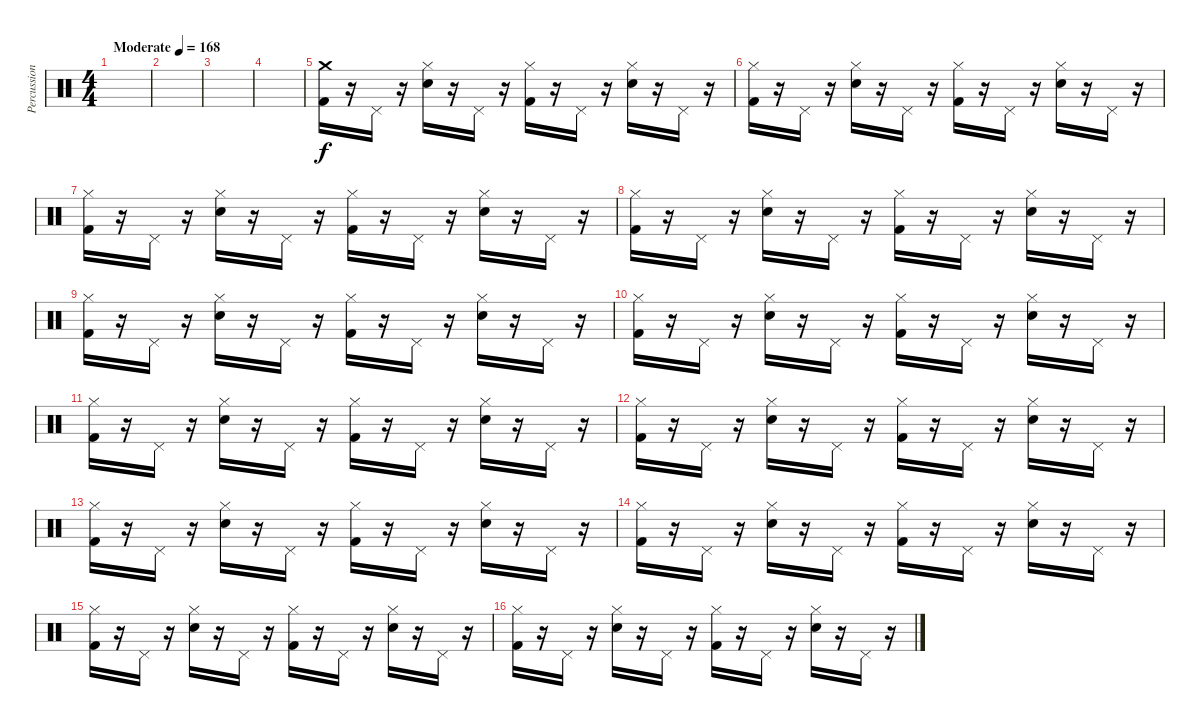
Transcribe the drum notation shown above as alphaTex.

\track ("Percussion" "Percussion") {instrument percussion}
\staff {score}
\articulation defaults
\ts (4 4)
\tempo (168 "Moderate")
\clef neutral
\ks c
|
|
|
|
("Crash medium (hit)" "Kick (hit) 2").16 r.16 "Pedal Hi-Hat (hit)".16 r.16 ("Hi-Hat (closed)" "Snare (hit) 2").16 r.16 "Pedal Hi-Hat (hit)".16 r.16 ("Hi-Hat (closed)" "Kick (hit) 2").16 r.16 "Pedal Hi-Hat (hit)".16 r.16 ("Hi-Hat (closed)" "Snare (hit) 2").16 r.16 "Pedal Hi-Hat (hit)".16 r.16 |
("Hi-Hat (closed)" "Kick (hit) 2").16 r.16 "Pedal Hi-Hat (hit)".16 r.16 ("Hi-Hat (closed)" "Snare (hit) 2").16 r.16 "Pedal Hi-Hat (hit)".16 r.16 ("Hi-Hat (closed)" "Kick (hit) 2").16 r.16 "Pedal Hi-Hat (hit)".16 r.16 ("Hi-Hat (closed)" "Snare (hit) 2").16 r.16 "Pedal Hi-Hat (hit)".16 r.16 |
("Hi-Hat (closed)" "Kick (hit) 2").16 r.16 "Pedal Hi-Hat (hit)".16 r.16 ("Hi-Hat (closed)" "Snare (hit) 2").16 r.16 "Pedal Hi-Hat (hit)".16 r.16 ("Hi-Hat (closed)" "Kick (hit) 2").16 r.16 "Pedal Hi-Hat (hit)".16 r.16 ("Hi-Hat (closed)" "Snare (hit) 2").16 r.16 "Pedal Hi-Hat (hit)".16 r.16 |
("Hi-Hat (closed)" "Kick (hit) 2").16 r.16 "Pedal Hi-Hat (hit)".16 r.16 ("Hi-Hat (closed)" "Snare (hit) 2").16 r.16 "Pedal Hi-Hat (hit)".16 r.16 ("Hi-Hat (closed)" "Kick (hit) 2").16 r.16 "Pedal Hi-Hat (hit)".16 r.16 ("Hi-Hat (closed)" "Snare (hit) 2").16 r.16 "Pedal Hi-Hat (hit)".16 r.16 |
("Hi-Hat (closed)" "Kick (hit) 2").16 r.16 "Pedal Hi-Hat (hit)".16 r.16 ("Hi-Hat (closed)" "Snare (hit) 2").16 r.16 "Pedal Hi-Hat (hit)".16 r.16 ("Hi-Hat (closed)" "Kick (hit) 2").16 r.16 "Pedal Hi-Hat (hit)".16 r.16 ("Hi-Hat (closed)" "Snare (hit) 2").16 r.16 "Pedal Hi-Hat (hit)".16 r.16 |
("Hi-Hat (closed)" "Kick (hit) 2").16 r.16 "Pedal Hi-Hat (hit)".16 r.16 ("Hi-Hat (closed)" "Snare (hit) 2").16 r.16 "Pedal Hi-Hat (hit)".16 r.16 ("Hi-Hat (closed)" "Kick (hit) 2").16 r.16 "Pedal Hi-Hat (hit)".16 r.16 ("Hi-Hat (closed)" "Snare (hit) 2").16 r.16 "Pedal Hi-Hat (hit)".16 r.16 |
("Hi-Hat (closed)" "Kick (hit) 2").16 r.16 "Pedal Hi-Hat (hit)".16 r.16 ("Hi-Hat (closed)" "Snare (hit) 2").16 r.16 "Pedal Hi-Hat (hit)".16 r.16 ("Hi-Hat (closed)" "Kick (hit) 2").16 r.16 "Pedal Hi-Hat (hit)".16 r.16 ("Hi-Hat (closed)" "Snare (hit) 2").16 r.16 "Pedal Hi-Hat (hit)".16 r.16 |
("Hi-Hat (closed)" "Kick (hit) 2").16 r.16 "Pedal Hi-Hat (hit)".16 r.16 ("Hi-Hat (closed)" "Snare (hit) 2").16 r.16 "Pedal Hi-Hat (hit)".16 r.16 ("Hi-Hat (closed)" "Kick (hit) 2").16 r.16 "Pedal Hi-Hat (hit)".16 r.16 ("Hi-Hat (closed)" "Snare (hit) 2").16 r.16 "Pedal Hi-Hat (hit)".16 r.16 |
("Hi-Hat (closed)" "Kick (hit) 2").16 r.16 "Pedal Hi-Hat (hit)".16 r.16 ("Hi-Hat (closed)" "Snare (hit) 2").16 r.16 "Pedal Hi-Hat (hit)".16 r.16 ("Hi-Hat (closed)" "Kick (hit) 2").16 r.16 "Pedal Hi-Hat (hit)".16 r.16 ("Hi-Hat (closed)" "Snare (hit) 2").16 r.16 "Pedal Hi-Hat (hit)".16 r.16 |
("Hi-Hat (closed)" "Kick (hit) 2").16 r.16 "Pedal Hi-Hat (hit)".16 r.16 ("Hi-Hat (closed)" "Snare (hit) 2").16 r.16 "Pedal Hi-Hat (hit)".16 r.16 ("Hi-Hat (closed)" "Kick (hit) 2").16 r.16 "Pedal Hi-Hat (hit)".16 r.16 ("Hi-Hat (closed)" "Snare (hit) 2").16 r.16 "Pedal Hi-Hat (hit)".16 r.16 |
("Hi-Hat (closed)" "Kick (hit) 2").16 r.16 "Pedal Hi-Hat (hit)".16 r.16 ("Hi-Hat (closed)" "Snare (hit) 2").16 r.16 "Pedal Hi-Hat (hit)".16 r.16 ("Hi-Hat (closed)" "Kick (hit) 2").16 r.16 "Pedal Hi-Hat (hit)".16 r.16 ("Hi-Hat (closed)" "Snare (hit) 2").16 r.16 "Pedal Hi-Hat (hit)".16 r.16 |
("Hi-Hat (closed)" "Kick (hit) 2").16 r.16 "Pedal Hi-Hat (hit)".16 r.16 ("Hi-Hat (closed)" "Snare (hit) 2").16 r.16 "Pedal Hi-Hat (hit)".16 r.16 ("Hi-Hat (closed)" "Kick (hit) 2").16 r.16 "Pedal Hi-Hat (hit)".16 r.16 ("Hi-Hat (closed)" "Snare (hit) 2").16 r.16 "Pedal Hi-Hat (hit)".16 r.16
